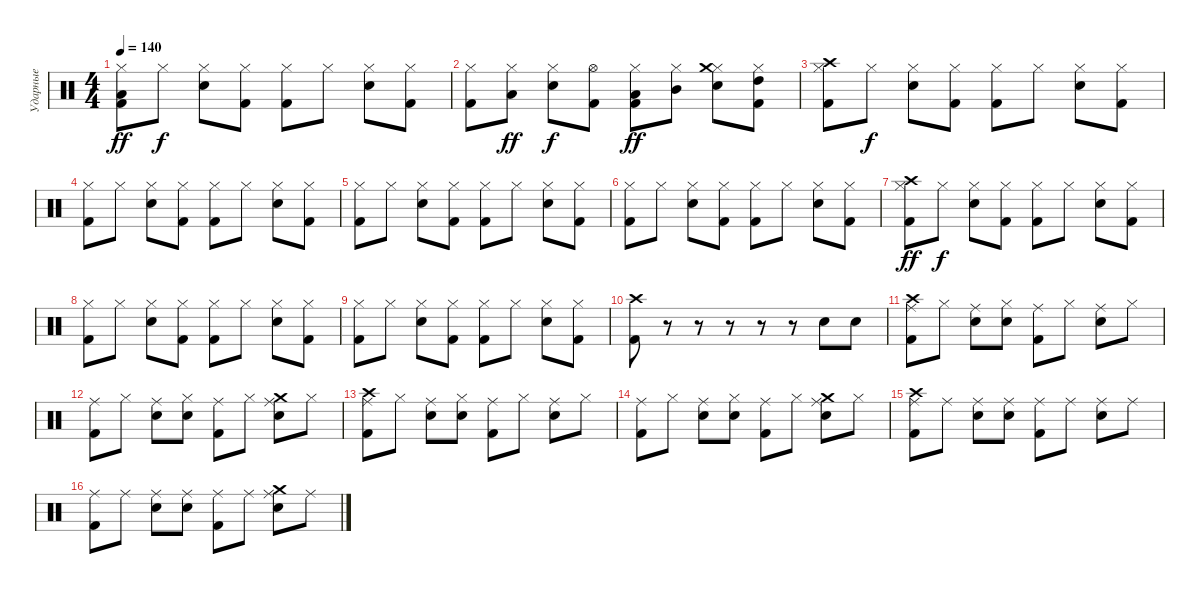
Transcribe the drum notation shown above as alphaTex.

\track ("Ударные" "Ударные") {instrument percussion}
\staff {score}
\articulation defaults
\ts (4 4)
\tempo 140
\clef neutral
\ks c
("Hi-Hat (closed)" "Low Floor Tom (hit)" "Kick (hit) 2").8{dy ff} "Hi-Hat (closed)".8{dy f} ("Hi-Hat (closed)" "Electric Snare (hit)").8 ("Hi-Hat (closed)" "Kick (hit) 2").8 ("Hi-Hat (closed)" "Kick (hit) 2").8 "Hi-Hat (closed)".8 ("Hi-Hat (closed)" "Electric Snare (hit)").8 ("Hi-Hat (closed)" "Kick (hit) 2").8 |
("Hi-Hat (closed)" "Kick (hit) 2").8 ("Hi-Hat (closed)" "Low Floor Tom (hit)").8{dy ff} ("Hi-Hat (closed)" "Electric Snare (hit)").8{dy f} ("Hi-Hat (open)" "Kick (hit) 2").8 ("Hi-Hat (closed)" "Low Floor Tom (hit)" "Kick (hit) 2").8{dy ff} ("Hi-Hat (closed)" "Mid Tom (hit)").8 ("Hi-Hat (closed)" "Crash medium (hit)" "Electric Snare (hit)").8 ("Hi-Hat (closed)" "High Tom (hit)" "Kick (hit) 2").8 |
("Hi-Hat (closed)" "Crash high (hit)" "Kick (hit) 2").8 "Hi-Hat (closed)".8{dy f} ("Hi-Hat (closed)" "Electric Snare (hit)").8 ("Hi-Hat (closed)" "Kick (hit) 2").8 ("Hi-Hat (closed)" "Kick (hit) 2").8 "Hi-Hat (closed)".8 ("Hi-Hat (closed)" "Electric Snare (hit)").8 ("Hi-Hat (closed)" "Kick (hit) 2").8 |
("Hi-Hat (closed)" "Kick (hit) 2").8 "Hi-Hat (closed)".8 ("Hi-Hat (closed)" "Electric Snare (hit)").8 ("Hi-Hat (closed)" "Kick (hit) 2").8 ("Hi-Hat (closed)" "Kick (hit) 2").8 "Hi-Hat (closed)".8 ("Hi-Hat (closed)" "Electric Snare (hit)").8 ("Hi-Hat (closed)" "Kick (hit) 2").8 |
("Hi-Hat (closed)" "Kick (hit) 2").8 "Hi-Hat (closed)".8 ("Hi-Hat (closed)" "Electric Snare (hit)").8 ("Hi-Hat (closed)" "Kick (hit) 2").8 ("Hi-Hat (closed)" "Kick (hit) 2").8 "Hi-Hat (closed)".8 ("Hi-Hat (closed)" "Electric Snare (hit)").8 ("Hi-Hat (closed)" "Kick (hit) 2").8 |
("Hi-Hat (closed)" "Kick (hit) 2").8 "Hi-Hat (closed)".8 ("Hi-Hat (closed)" "Electric Snare (hit)").8 ("Hi-Hat (closed)" "Kick (hit) 2").8 ("Hi-Hat (closed)" "Kick (hit) 2").8 "Hi-Hat (closed)".8 ("Hi-Hat (closed)" "Electric Snare (hit)").8 ("Hi-Hat (closed)" "Kick (hit) 2").8 |
("Hi-Hat (closed)" "Crash high (hit)" "Kick (hit) 2").8{dy ff} "Hi-Hat (closed)".8{dy f} ("Hi-Hat (closed)" "Electric Snare (hit)").8 ("Hi-Hat (closed)" "Kick (hit) 2").8 ("Hi-Hat (closed)" "Kick (hit) 2").8 "Hi-Hat (closed)".8 ("Hi-Hat (closed)" "Electric Snare (hit)").8 ("Hi-Hat (closed)" "Kick (hit) 2").8 |
("Hi-Hat (closed)" "Kick (hit) 2").8 "Hi-Hat (closed)".8 ("Hi-Hat (closed)" "Electric Snare (hit)").8 ("Hi-Hat (closed)" "Kick (hit) 2").8 ("Hi-Hat (closed)" "Kick (hit) 2").8 "Hi-Hat (closed)".8 ("Hi-Hat (closed)" "Electric Snare (hit)").8 ("Hi-Hat (closed)" "Kick (hit) 2").8 |
("Hi-Hat (closed)" "Kick (hit) 2").8 "Hi-Hat (closed)".8 ("Hi-Hat (closed)" "Electric Snare (hit)").8 ("Hi-Hat (closed)" "Kick (hit) 2").8 ("Hi-Hat (closed)" "Kick (hit) 2").8 "Hi-Hat (closed)".8 ("Hi-Hat (closed)" "Electric Snare (hit)").8 ("Hi-Hat (closed)" "Kick (hit) 2").8 |
("Crash high (hit)" "Kick (hit) 2").8 r.8 r.8 r.8 r.8 r.8 "Snare (hit) 2".8 "Snare (hit) 2".8 |
("Crash high (hit)" "Ride (middle)" "Kick (hit) 2").8 "Hi-Hat (closed)".8 ("Ride (middle)" "Snare (hit) 2").8 ("Hi-Hat (closed)" "Snare (hit) 2").8 ("Ride (middle)" "Kick (hit) 2").8 "Hi-Hat (closed)".8 ("Ride (middle)" "Snare (hit) 2").8 "Hi-Hat (closed)".8 |
("Ride (middle)" "Kick (hit) 2").8 "Hi-Hat (closed)".8 ("Ride (middle)" "Snare (hit) 2").8 ("Hi-Hat (closed)" "Snare (hit) 2").8 ("Ride (middle)" "Kick (hit) 2").8 "Hi-Hat (closed)".8 ("Crash medium (hit)" "Ride (middle)" "Snare (hit) 2").8 "Hi-Hat (closed)".8 |
("Crash high (hit)" "Ride (middle)" "Kick (hit) 2").8 "Hi-Hat (closed)".8 ("Ride (middle)" "Snare (hit) 2").8 ("Hi-Hat (closed)" "Snare (hit) 2").8 ("Ride (middle)" "Kick (hit) 2").8 "Hi-Hat (closed)".8 ("Ride (middle)" "Snare (hit) 2").8 "Hi-Hat (closed)".8 |
("Ride (middle)" "Kick (hit) 2").8 "Hi-Hat (closed)".8 ("Ride (middle)" "Snare (hit) 2").8 ("Hi-Hat (closed)" "Snare (hit) 2").8 ("Ride (middle)" "Kick (hit) 2").8 "Hi-Hat (closed)".8 ("Crash medium (hit)" "Ride (middle)" "Snare (hit) 2").8 "Hi-Hat (closed)".8 |
("Crash high (hit)" "Ride (middle)" "Kick (hit) 2").8 "Ride (middle)".8 ("Ride (middle)" "Snare (hit) 2").8 ("Ride (middle)" "Snare (hit) 2").8 ("Ride (middle)" "Kick (hit) 2").8 "Ride (middle)".8 ("Ride (middle)" "Snare (hit) 2").8 "Ride (middle)".8 |
("Ride (middle)" "Kick (hit) 2").8 "Ride (middle)".8 ("Ride (middle)" "Snare (hit) 2").8 ("Ride (middle)" "Snare (hit) 2").8 ("Ride (middle)" "Kick (hit) 2").8 "Ride (middle)".8 ("Crash medium (hit)" "Ride (middle)" "Snare (hit) 2").8 "Ride (middle)".8
